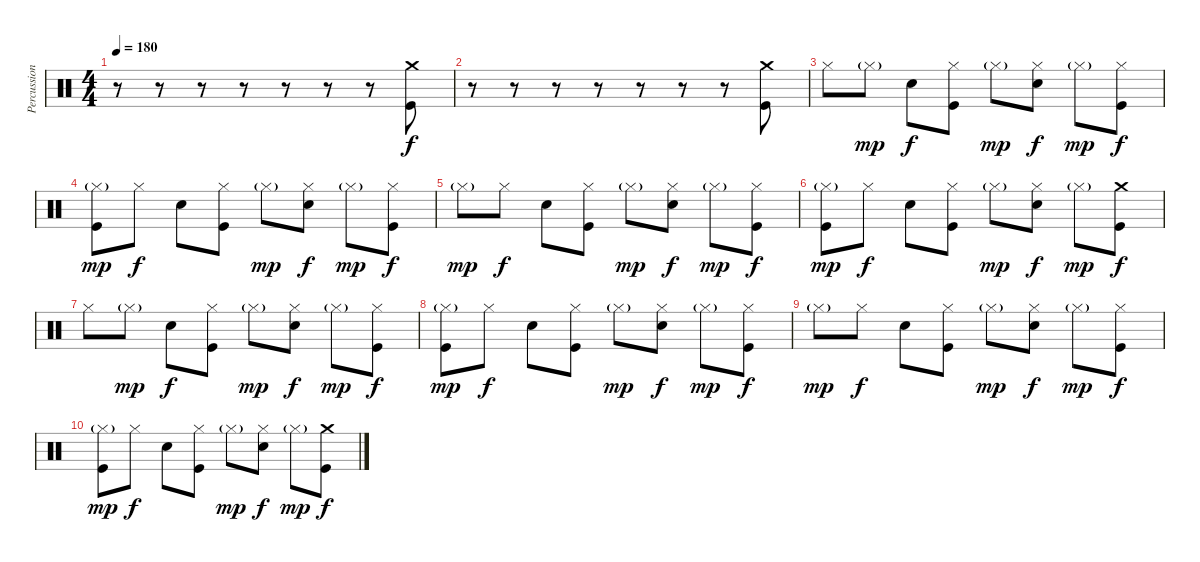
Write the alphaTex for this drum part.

\track ("Percussion" "Percussion") {instrument percussion}
\staff {score}
\articulation defaults
\ts (4 4)
\tempo 180
\clef neutral
\ks c
r.8{dy f} r.8 r.8 r.8 r.8 r.8 r.8 ("Crash medium (hit)" "Kick (hit)").8 |
r.8 r.8 r.8 r.8 r.8 r.8 r.8 ("Crash medium (hit)" "Kick (hit)").8 |
"Hi-Hat (closed)".8 "Hi-Hat (closed)"{g}.8{dy mp} "Snare (hit) 2".8{dy f} ("Hi-Hat (closed)" "Kick (hit)").8 "Hi-Hat (closed)"{g}.8{dy mp} ("Hi-Hat (closed)" "Snare (hit) 2").8{dy f} "Hi-Hat (closed)"{g}.8{dy mp} ("Hi-Hat (closed)" "Kick (hit)").8{dy f} |
("Hi-Hat (closed)"{g} "Kick (hit)").8{dy mp} "Hi-Hat (closed)".8{dy f} "Snare (hit) 2".8 ("Hi-Hat (closed)" "Kick (hit)").8 "Hi-Hat (closed)"{g}.8{dy mp} ("Hi-Hat (closed)" "Snare (hit) 2").8{dy f} "Hi-Hat (closed)"{g}.8{dy mp} ("Hi-Hat (closed)" "Kick (hit)").8{dy f} |
"Hi-Hat (closed)"{g}.8{dy mp} "Hi-Hat (closed)".8{dy f} "Snare (hit) 2".8 ("Hi-Hat (closed)" "Kick (hit)").8 "Hi-Hat (closed)"{g}.8{dy mp} ("Hi-Hat (closed)" "Snare (hit) 2").8{dy f} "Hi-Hat (closed)"{g}.8{dy mp} ("Hi-Hat (closed)" "Kick (hit)").8{dy f} |
("Hi-Hat (closed)"{g} "Kick (hit)").8{dy mp} "Hi-Hat (closed)".8{dy f} "Snare (hit) 2".8 ("Hi-Hat (closed)" "Kick (hit)").8 "Hi-Hat (closed)"{g}.8{dy mp} ("Hi-Hat (closed)" "Snare (hit) 2").8{dy f} "Hi-Hat (closed)"{g}.8{dy mp} ("Crash medium (hit)" "Kick (hit)").8{dy f} |
"Hi-Hat (closed)".8 "Hi-Hat (closed)"{g}.8{dy mp} "Snare (hit) 2".8{dy f} ("Hi-Hat (closed)" "Kick (hit)").8 "Hi-Hat (closed)"{g}.8{dy mp} ("Hi-Hat (closed)" "Snare (hit) 2").8{dy f} "Hi-Hat (closed)"{g}.8{dy mp} ("Hi-Hat (closed)" "Kick (hit)").8{dy f} |
("Hi-Hat (closed)"{g} "Kick (hit)").8{dy mp} "Hi-Hat (closed)".8{dy f} "Snare (hit) 2".8 ("Hi-Hat (closed)" "Kick (hit)").8 "Hi-Hat (closed)"{g}.8{dy mp} ("Hi-Hat (closed)" "Snare (hit) 2").8{dy f} "Hi-Hat (closed)"{g}.8{dy mp} ("Hi-Hat (closed)" "Kick (hit)").8{dy f} |
"Hi-Hat (closed)"{g}.8{dy mp} "Hi-Hat (closed)".8{dy f} "Snare (hit) 2".8 ("Hi-Hat (closed)" "Kick (hit)").8 "Hi-Hat (closed)"{g}.8{dy mp} ("Hi-Hat (closed)" "Snare (hit) 2").8{dy f} "Hi-Hat (closed)"{g}.8{dy mp} ("Hi-Hat (closed)" "Kick (hit)").8{dy f} |
("Hi-Hat (closed)"{g} "Kick (hit)").8{dy mp} "Hi-Hat (closed)".8{dy f} "Snare (hit) 2".8 ("Hi-Hat (closed)" "Kick (hit)").8 "Hi-Hat (closed)"{g}.8{dy mp} ("Hi-Hat (closed)" "Snare (hit) 2").8{dy f} "Hi-Hat (closed)"{g}.8{dy mp} ("Crash medium (hit)" "Kick (hit)").8{dy f}
